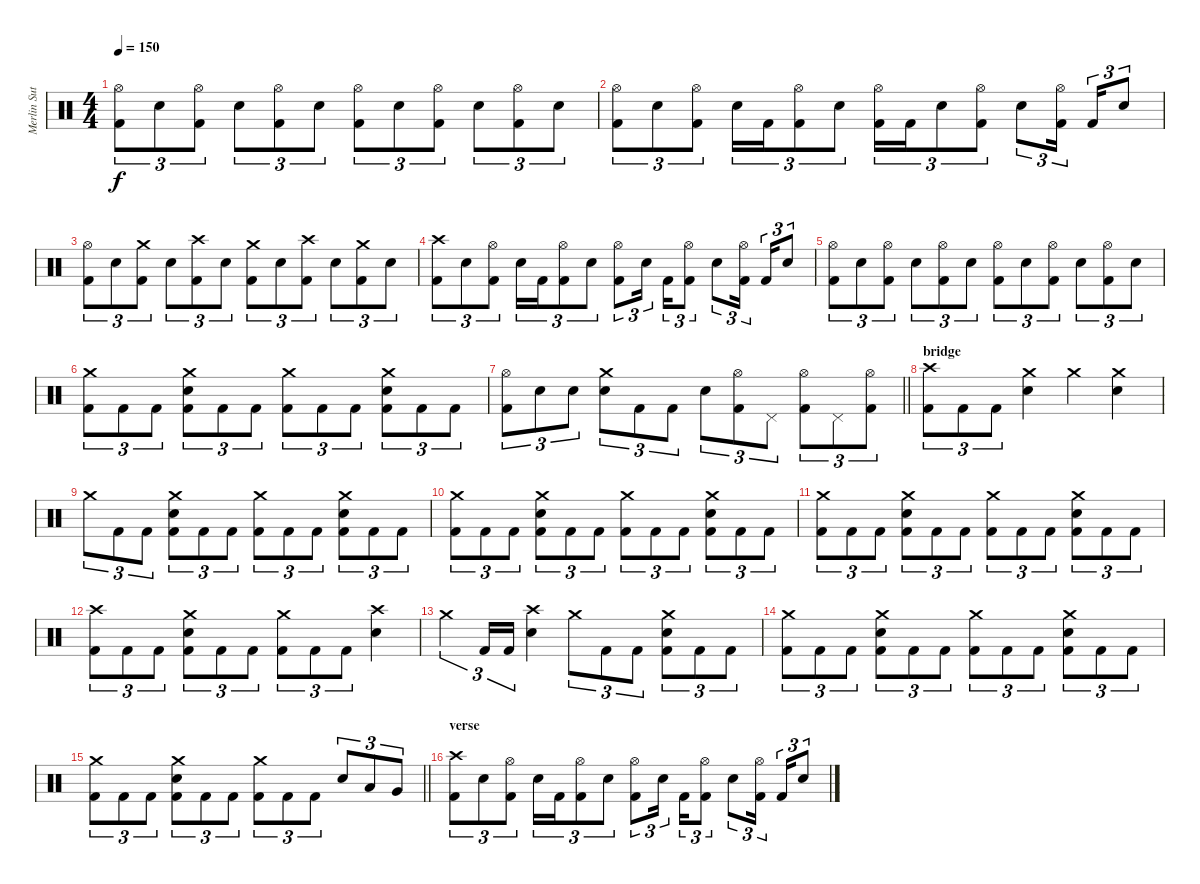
\track ("Merlin Sutter" "Merlin Sut") {instrument percussion}
\staff {score}
\articulation defaults
\ts (4 4)
\tempo 150
\clef neutral
\ks c
("Hi-Hat (open)" "Kick (hit) 2").8{tu (3 2) dy f} "Snare (hit) 2".8{tu (3 2)} ("Hi-Hat (open)" "Kick (hit) 2").8{tu (3 2)} "Snare (hit) 2".8{tu (3 2)} ("Hi-Hat (open)" "Kick (hit) 2").8{tu (3 2)} "Snare (hit) 2".8{tu (3 2)} ("Hi-Hat (open)" "Kick (hit) 2").8{tu (3 2)} "Snare (hit) 2".8{tu (3 2)} ("Hi-Hat (open)" "Kick (hit) 2").8{tu (3 2)} "Snare (hit) 2".8{tu (3 2)} ("Hi-Hat (open)" "Kick (hit) 2").8{tu (3 2)} "Snare (hit) 2".8{tu (3 2)} |
("Hi-Hat (open)" "Kick (hit) 2").8{tu (3 2)} "Snare (hit) 2".8{tu (3 2)} ("Hi-Hat (open)" "Kick (hit) 2").8{tu (3 2)} "Snare (hit) 2".16{tu (3 2)} "Kick (hit) 2".16{tu (3 2)} ("Hi-Hat (open)" "Kick (hit) 2").8{tu (3 2)} "Snare (hit) 2".8{tu (3 2)} ("Hi-Hat (open)" "Kick (hit) 2").16{tu (3 2)} "Kick (hit) 2".16{tu (3 2)} "Snare (hit) 2".8{tu (3 2)} ("Hi-Hat (open)" "Kick (hit) 2").8{tu (3 2)} "Snare (hit) 2".8{tu (3 2)} ("Hi-Hat (open)" "Kick (hit) 2").16{tu (3 2) beam splitsecondary} "Kick (hit) 2".16{tu (3 2)} "Snare (hit) 2".8{tu (3 2)} |
("Hi-Hat (open)" "Kick (hit) 2").8{tu (3 2)} "Snare (hit) 2".8{tu (3 2)} ("Crash medium (hit)" "Kick (hit) 2").8{tu (3 2)} "Snare (hit) 2".8{tu (3 2)} ("Crash high (hit)" "Kick (hit) 2").8{tu (3 2)} "Snare (hit) 2".8{tu (3 2)} ("Crash medium (hit)" "Kick (hit) 2").8{tu (3 2)} "Snare (hit) 2".8{tu (3 2)} ("Crash high (hit)" "Kick (hit) 2").8{tu (3 2)} "Snare (hit) 2".8{tu (3 2)} ("Crash medium (hit)" "Kick (hit) 2").8{tu (3 2)} "Snare (hit) 2".8{tu (3 2)} |
("Crash high (hit)" "Kick (hit) 2").8{tu (3 2)} "Snare (hit) 2".8{tu (3 2)} ("Hi-Hat (open)" "Kick (hit) 2").8{tu (3 2)} "Snare (hit) 2".16{tu (3 2)} "Kick (hit) 2".16{tu (3 2)} ("Hi-Hat (open)" "Kick (hit) 2").8{tu (3 2)} "Snare (hit) 2".8{tu (3 2)} ("Hi-Hat (open)" "Kick (hit) 2").8{tu (3 2)} "Snare (hit) 2".16{tu (3 2) beam splitsecondary} "Kick (hit) 2".16{tu (3 2)} ("Hi-Hat (open)" "Kick (hit) 2").8{tu (3 2)} "Snare (hit) 2".8{tu (3 2)} ("Hi-Hat (open)" "Kick (hit) 2").16{tu (3 2) beam splitsecondary} "Kick (hit) 2".16{tu (3 2)} "Snare (hit) 2".8{tu (3 2)} |
("Hi-Hat (open)" "Kick (hit) 2").8{tu (3 2)} "Snare (hit) 2".8{tu (3 2)} ("Hi-Hat (open)" "Kick (hit) 2").8{tu (3 2)} "Snare (hit) 2".8{tu (3 2)} ("Hi-Hat (open)" "Kick (hit) 2").8{tu (3 2)} "Snare (hit) 2".8{tu (3 2)} ("Hi-Hat (open)" "Kick (hit) 2").8{tu (3 2)} "Snare (hit) 2".8{tu (3 2)} ("Hi-Hat (open)" "Kick (hit) 2").8{tu (3 2)} "Snare (hit) 2".8{tu (3 2)} ("Hi-Hat (open)" "Kick (hit) 2").8{tu (3 2)} "Snare (hit) 2".8{tu (3 2)} |
("Crash medium (hit)" "Kick (hit) 2").8{tu (3 2)} "Kick (hit) 2".8{tu (3 2)} "Kick (hit) 2".8{tu (3 2)} ("Crash medium (hit)" "Snare (hit) 2" "Kick (hit) 2").8{tu (3 2)} "Kick (hit) 2".8{tu (3 2)} "Kick (hit) 2".8{tu (3 2)} ("Crash medium (hit)" "Kick (hit) 2").8{tu (3 2)} "Kick (hit) 2".8{tu (3 2)} "Kick (hit) 2".8{tu (3 2)} ("Crash medium (hit)" "Snare (hit) 2" "Kick (hit) 2").8{tu (3 2)} "Kick (hit) 2".8{tu (3 2)} "Kick (hit) 2".8{tu (3 2)} |
\barLineRight lightlight
("Hi-Hat (open)" "Kick (hit) 2").8{tu (3 2)} "Snare (hit) 2".8{tu (3 2)} "Snare (hit) 2".8{tu (3 2)} ("Crash medium (hit)" "Snare (hit) 2").8{tu (3 2)} "Kick (hit) 2".8{tu (3 2)} "Kick (hit) 2".8{tu (3 2)} "Snare (hit) 2".8{tu (3 2)} ("Hi-Hat (open)" "Kick (hit) 2").8{tu (3 2)} "Pedal Hi-Hat (hit)".8{tu (3 2)} ("Hi-Hat (open)" "Kick (hit) 2").8{tu (3 2)} "Pedal Hi-Hat (hit)".8{tu (3 2)} ("Hi-Hat (open)" "Kick (hit) 2").8{tu (3 2)} |
\section ("" "bridge")
("Crash high (hit)" "Kick (hit) 2").8{tu (3 2)} "Kick (hit) 2".8{tu (3 2)} "Kick (hit) 2".8{tu (3 2)} ("Crash medium (hit)" "Snare (hit) 2").4 "Crash medium (hit)".4 ("Crash medium (hit)" "Snare (hit) 2").4 |
"Crash medium (hit)".8{tu (3 2)} "Kick (hit) 2".8{tu (3 2)} "Kick (hit) 2".8{tu (3 2)} ("Crash medium (hit)" "Snare (hit) 2" "Kick (hit) 2").8{tu (3 2)} "Kick (hit) 2".8{tu (3 2)} "Kick (hit) 2".8{tu (3 2)} ("Crash medium (hit)" "Kick (hit) 2").8{tu (3 2)} "Kick (hit) 2".8{tu (3 2)} "Kick (hit) 2".8{tu (3 2)} ("Crash medium (hit)" "Snare (hit) 2" "Kick (hit) 2").8{tu (3 2)} "Kick (hit) 2".8{tu (3 2)} "Kick (hit) 2".8{tu (3 2)} |
("Crash medium (hit)" "Kick (hit) 2").8{tu (3 2)} "Kick (hit) 2".8{tu (3 2)} "Kick (hit) 2".8{tu (3 2)} ("Crash medium (hit)" "Snare (hit) 2" "Kick (hit) 2").8{tu (3 2)} "Kick (hit) 2".8{tu (3 2)} "Kick (hit) 2".8{tu (3 2)} ("Crash medium (hit)" "Kick (hit) 2").8{tu (3 2)} "Kick (hit) 2".8{tu (3 2)} "Kick (hit) 2".8{tu (3 2)} ("Crash medium (hit)" "Snare (hit) 2" "Kick (hit) 2").8{tu (3 2)} "Kick (hit) 2".8{tu (3 2)} "Kick (hit) 2".8{tu (3 2)} |
("Crash medium (hit)" "Kick (hit) 2").8{tu (3 2)} "Kick (hit) 2".8{tu (3 2)} "Kick (hit) 2".8{tu (3 2)} ("Crash medium (hit)" "Snare (hit) 2" "Kick (hit) 2").8{tu (3 2)} "Kick (hit) 2".8{tu (3 2)} "Kick (hit) 2".8{tu (3 2)} ("Crash medium (hit)" "Kick (hit) 2").8{tu (3 2)} "Kick (hit) 2".8{tu (3 2)} "Kick (hit) 2".8{tu (3 2)} ("Crash medium (hit)" "Snare (hit) 2" "Kick (hit) 2").8{tu (3 2)} "Kick (hit) 2".8{tu (3 2)} "Kick (hit) 2".8{tu (3 2)} |
("Crash high (hit)" "Kick (hit) 2").8{tu (3 2)} "Kick (hit) 2".8{tu (3 2)} "Kick (hit) 2".8{tu (3 2)} ("Crash medium (hit)" "Snare (hit) 2" "Kick (hit) 2").8{tu (3 2)} "Kick (hit) 2".8{tu (3 2)} "Kick (hit) 2".8{tu (3 2)} ("Crash medium (hit)" "Kick (hit) 2").8{tu (3 2)} "Kick (hit) 2".8{tu (3 2)} "Kick (hit) 2".8{tu (3 2)} ("Crash high (hit)" "Snare (hit) 2").4 |
"Crash medium (hit)".4{tu (3 2)} "Kick (hit) 2".16{tu (3 2)} "Kick (hit) 2".16{tu (3 2)} ("Crash high (hit)" "Snare (hit) 2").4 "Crash medium (hit)".8{tu (3 2)} "Kick (hit) 2".8{tu (3 2)} "Kick (hit) 2".8{tu (3 2)} ("Crash medium (hit)" "Snare (hit) 2" "Kick (hit) 2").8{tu (3 2)} "Kick (hit) 2".8{tu (3 2)} "Kick (hit) 2".8{tu (3 2)} |
("Crash medium (hit)" "Kick (hit) 2").8{tu (3 2)} "Kick (hit) 2".8{tu (3 2)} "Kick (hit) 2".8{tu (3 2)} ("Crash medium (hit)" "Snare (hit) 2" "Kick (hit) 2").8{tu (3 2)} "Kick (hit) 2".8{tu (3 2)} "Kick (hit) 2".8{tu (3 2)} ("Crash medium (hit)" "Kick (hit) 2").8{tu (3 2)} "Kick (hit) 2".8{tu (3 2)} "Kick (hit) 2".8{tu (3 2)} ("Crash medium (hit)" "Snare (hit) 2" "Kick (hit) 2").8{tu (3 2)} "Kick (hit) 2".8{tu (3 2)} "Kick (hit) 2".8{tu (3 2)} |
\barLineRight lightlight
("Crash medium (hit)" "Kick (hit) 2").8{tu (3 2)} "Kick (hit) 2".8{tu (3 2)} "Kick (hit) 2".8{tu (3 2)} ("Crash medium (hit)" "Snare (hit) 2" "Kick (hit) 2").8{tu (3 2)} "Kick (hit) 2".8{tu (3 2)} "Kick (hit) 2".8{tu (3 2)} ("Crash medium (hit)" "Kick (hit) 2").8{tu (3 2)} "Kick (hit) 2".8{tu (3 2)} "Kick (hit) 2".8{tu (3 2)} "Snare (hit) 2".8{tu (3 2)} "Low Tom (hit)".8{tu (3 2)} "Very Low Tom (hit)".8{tu (3 2)} |
\section ("" "verse")
("Crash high (hit)" "Kick (hit) 2").8{tu (3 2)} "Snare (hit) 2".8{tu (3 2)} ("Hi-Hat (open)" "Kick (hit) 2").8{tu (3 2)} "Snare (hit) 2".16{tu (3 2)} "Kick (hit) 2".16{tu (3 2)} ("Hi-Hat (open)" "Kick (hit) 2").8{tu (3 2)} "Snare (hit) 2".8{tu (3 2)} ("Hi-Hat (open)" "Kick (hit) 2").8{tu (3 2)} "Snare (hit) 2".16{tu (3 2) beam splitsecondary} "Kick (hit) 2".16{tu (3 2)} ("Hi-Hat (open)" "Kick (hit) 2").8{tu (3 2)} "Snare (hit) 2".8{tu (3 2)} ("Hi-Hat (open)" "Kick (hit) 2").16{tu (3 2) beam splitsecondary} "Kick (hit) 2".16{tu (3 2)} "Snare (hit) 2".8{tu (3 2)}
